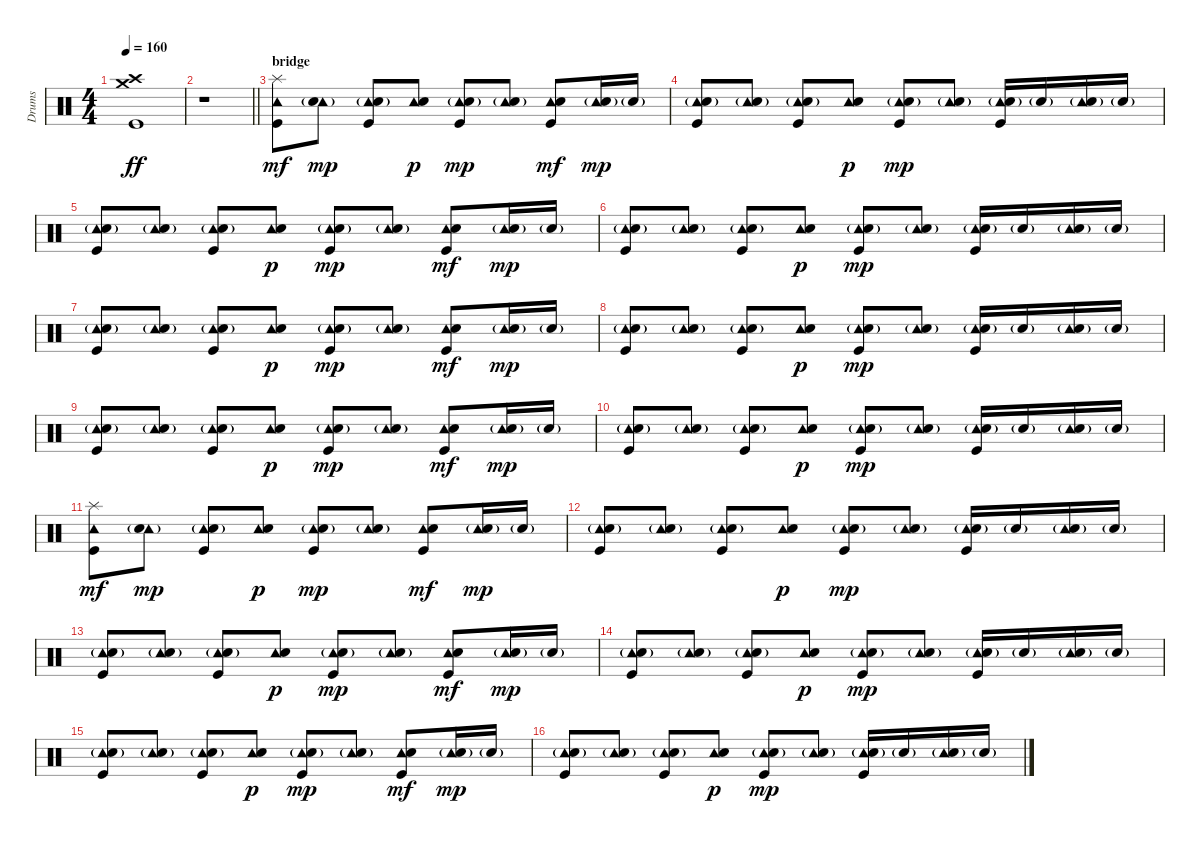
\track ("Drums" "Drums") {instrument percussion}
\staff {score}
\articulation defaults
\ts (4 4)
\tempo 160
\clef neutral
\ks c
("Crash medium (hit)" "Crash high (hit)" "Kick (hit)").1{dy ff} |
\barLineRight lightlight
r.1 |
\section ("" "bridge")
("Tambourine (hit)" "Splash (hit)" "Kick (hit)").8{dy mf} ("Tambourine (hit)" "Electric Snare (hit)"{g}).8{dy mp} ("Tambourine (hit)" "Electric Snare (hit)"{g} "Kick (hit)").8 ("Tambourine (hit)" "Electric Snare (hit)").8{dy p} ("Tambourine (hit)" "Electric Snare (hit)"{g} "Kick (hit)").8{dy mp} ("Tambourine (hit)" "Electric Snare (hit)"{g}).8 ("Tambourine (hit)" "Electric Snare (hit)" "Kick (hit)").8{dy mf} ("Tambourine (hit)" "Electric Snare (hit)"{g}).16{dy mp} "Electric Snare (hit)"{g}.16 |
("Tambourine (hit)" "Electric Snare (hit)"{g} "Kick (hit)").8 ("Tambourine (hit)" "Electric Snare (hit)"{g}).8 ("Tambourine (hit)" "Electric Snare (hit)"{g} "Kick (hit)").8 ("Tambourine (hit)" "Electric Snare (hit)").8{dy p} ("Tambourine (hit)" "Electric Snare (hit)"{g} "Kick (hit)").8{dy mp} ("Tambourine (hit)" "Electric Snare (hit)"{g}).8 ("Tambourine (hit)" "Electric Snare (hit)"{g} "Kick (hit)").16 "Electric Snare (hit)"{g}.16 ("Tambourine (hit)" "Electric Snare (hit)"{g}).16 "Electric Snare (hit)"{g}.16 |
("Tambourine (hit)" "Electric Snare (hit)"{g} "Kick (hit)").8 ("Tambourine (hit)" "Electric Snare (hit)"{g}).8 ("Tambourine (hit)" "Electric Snare (hit)"{g} "Kick (hit)").8 ("Tambourine (hit)" "Electric Snare (hit)").8{dy p} ("Tambourine (hit)" "Electric Snare (hit)"{g} "Kick (hit)").8{dy mp} ("Tambourine (hit)" "Electric Snare (hit)"{g}).8 ("Tambourine (hit)" "Electric Snare (hit)" "Kick (hit)").8{dy mf} ("Tambourine (hit)" "Electric Snare (hit)"{g}).16{dy mp} "Electric Snare (hit)"{g}.16 |
("Tambourine (hit)" "Electric Snare (hit)"{g} "Kick (hit)").8 ("Tambourine (hit)" "Electric Snare (hit)"{g}).8 ("Tambourine (hit)" "Electric Snare (hit)"{g} "Kick (hit)").8 ("Tambourine (hit)" "Electric Snare (hit)").8{dy p} ("Tambourine (hit)" "Electric Snare (hit)"{g} "Kick (hit)").8{dy mp} ("Tambourine (hit)" "Electric Snare (hit)"{g}).8 ("Tambourine (hit)" "Electric Snare (hit)"{g} "Kick (hit)").16 "Electric Snare (hit)"{g}.16 ("Tambourine (hit)" "Electric Snare (hit)"{g}).16 "Electric Snare (hit)"{g}.16 |
("Tambourine (hit)" "Electric Snare (hit)"{g} "Kick (hit)").8 ("Tambourine (hit)" "Electric Snare (hit)"{g}).8 ("Tambourine (hit)" "Electric Snare (hit)"{g} "Kick (hit)").8 ("Tambourine (hit)" "Electric Snare (hit)").8{dy p} ("Tambourine (hit)" "Electric Snare (hit)"{g} "Kick (hit)").8{dy mp} ("Tambourine (hit)" "Electric Snare (hit)"{g}).8 ("Tambourine (hit)" "Electric Snare (hit)" "Kick (hit)").8{dy mf} ("Tambourine (hit)" "Electric Snare (hit)"{g}).16{dy mp} "Electric Snare (hit)"{g}.16 |
("Tambourine (hit)" "Electric Snare (hit)"{g} "Kick (hit)").8 ("Tambourine (hit)" "Electric Snare (hit)"{g}).8 ("Tambourine (hit)" "Electric Snare (hit)"{g} "Kick (hit)").8 ("Tambourine (hit)" "Electric Snare (hit)").8{dy p} ("Tambourine (hit)" "Electric Snare (hit)"{g} "Kick (hit)").8{dy mp} ("Tambourine (hit)" "Electric Snare (hit)"{g}).8 ("Tambourine (hit)" "Electric Snare (hit)"{g} "Kick (hit)").16 "Electric Snare (hit)"{g}.16 ("Tambourine (hit)" "Electric Snare (hit)"{g}).16 "Electric Snare (hit)"{g}.16 |
("Tambourine (hit)" "Electric Snare (hit)"{g} "Kick (hit)").8 ("Tambourine (hit)" "Electric Snare (hit)"{g}).8 ("Tambourine (hit)" "Electric Snare (hit)"{g} "Kick (hit)").8 ("Tambourine (hit)" "Electric Snare (hit)").8{dy p} ("Tambourine (hit)" "Electric Snare (hit)"{g} "Kick (hit)").8{dy mp} ("Tambourine (hit)" "Electric Snare (hit)"{g}).8 ("Tambourine (hit)" "Electric Snare (hit)" "Kick (hit)").8{dy mf} ("Tambourine (hit)" "Electric Snare (hit)"{g}).16{dy mp} "Electric Snare (hit)"{g}.16 |
("Tambourine (hit)" "Electric Snare (hit)"{g} "Kick (hit)").8 ("Tambourine (hit)" "Electric Snare (hit)"{g}).8 ("Tambourine (hit)" "Electric Snare (hit)"{g} "Kick (hit)").8 ("Tambourine (hit)" "Electric Snare (hit)").8{dy p} ("Tambourine (hit)" "Electric Snare (hit)"{g} "Kick (hit)").8{dy mp} ("Tambourine (hit)" "Electric Snare (hit)"{g}).8 ("Tambourine (hit)" "Electric Snare (hit)"{g} "Kick (hit)").16 "Electric Snare (hit)"{g}.16 ("Tambourine (hit)" "Electric Snare (hit)"{g}).16 "Electric Snare (hit)"{g}.16 |
("Tambourine (hit)" "Splash (hit)" "Kick (hit)").8{dy mf} ("Tambourine (hit)" "Electric Snare (hit)"{g}).8{dy mp} ("Tambourine (hit)" "Electric Snare (hit)"{g} "Kick (hit)").8 ("Tambourine (hit)" "Electric Snare (hit)").8{dy p} ("Tambourine (hit)" "Electric Snare (hit)"{g} "Kick (hit)").8{dy mp} ("Tambourine (hit)" "Electric Snare (hit)"{g}).8 ("Tambourine (hit)" "Electric Snare (hit)" "Kick (hit)").8{dy mf} ("Tambourine (hit)" "Electric Snare (hit)"{g}).16{dy mp} "Electric Snare (hit)"{g}.16 |
("Tambourine (hit)" "Electric Snare (hit)"{g} "Kick (hit)").8 ("Tambourine (hit)" "Electric Snare (hit)"{g}).8 ("Tambourine (hit)" "Electric Snare (hit)"{g} "Kick (hit)").8 ("Tambourine (hit)" "Electric Snare (hit)").8{dy p} ("Tambourine (hit)" "Electric Snare (hit)"{g} "Kick (hit)").8{dy mp} ("Tambourine (hit)" "Electric Snare (hit)"{g}).8 ("Tambourine (hit)" "Electric Snare (hit)"{g} "Kick (hit)").16 "Electric Snare (hit)"{g}.16 ("Tambourine (hit)" "Electric Snare (hit)"{g}).16 "Electric Snare (hit)"{g}.16 |
("Tambourine (hit)" "Electric Snare (hit)"{g} "Kick (hit)").8 ("Tambourine (hit)" "Electric Snare (hit)"{g}).8 ("Tambourine (hit)" "Electric Snare (hit)"{g} "Kick (hit)").8 ("Tambourine (hit)" "Electric Snare (hit)").8{dy p} ("Tambourine (hit)" "Electric Snare (hit)"{g} "Kick (hit)").8{dy mp} ("Tambourine (hit)" "Electric Snare (hit)"{g}).8 ("Tambourine (hit)" "Electric Snare (hit)" "Kick (hit)").8{dy mf} ("Tambourine (hit)" "Electric Snare (hit)"{g}).16{dy mp} "Electric Snare (hit)"{g}.16 |
("Tambourine (hit)" "Electric Snare (hit)"{g} "Kick (hit)").8 ("Tambourine (hit)" "Electric Snare (hit)"{g}).8 ("Tambourine (hit)" "Electric Snare (hit)"{g} "Kick (hit)").8 ("Tambourine (hit)" "Electric Snare (hit)").8{dy p} ("Tambourine (hit)" "Electric Snare (hit)"{g} "Kick (hit)").8{dy mp} ("Tambourine (hit)" "Electric Snare (hit)"{g}).8 ("Tambourine (hit)" "Electric Snare (hit)"{g} "Kick (hit)").16 "Electric Snare (hit)"{g}.16 ("Tambourine (hit)" "Electric Snare (hit)"{g}).16 "Electric Snare (hit)"{g}.16 |
("Tambourine (hit)" "Electric Snare (hit)"{g} "Kick (hit)").8 ("Tambourine (hit)" "Electric Snare (hit)"{g}).8 ("Tambourine (hit)" "Electric Snare (hit)"{g} "Kick (hit)").8 ("Tambourine (hit)" "Electric Snare (hit)").8{dy p} ("Tambourine (hit)" "Electric Snare (hit)"{g} "Kick (hit)").8{dy mp} ("Tambourine (hit)" "Electric Snare (hit)"{g}).8 ("Tambourine (hit)" "Electric Snare (hit)" "Kick (hit)").8{dy mf} ("Tambourine (hit)" "Electric Snare (hit)"{g}).16{dy mp} "Electric Snare (hit)"{g}.16 |
("Tambourine (hit)" "Electric Snare (hit)"{g} "Kick (hit)").8 ("Tambourine (hit)" "Electric Snare (hit)"{g}).8 ("Tambourine (hit)" "Electric Snare (hit)"{g} "Kick (hit)").8 ("Tambourine (hit)" "Electric Snare (hit)").8{dy p} ("Tambourine (hit)" "Electric Snare (hit)"{g} "Kick (hit)").8{dy mp} ("Tambourine (hit)" "Electric Snare (hit)"{g}).8 ("Tambourine (hit)" "Electric Snare (hit)"{g} "Kick (hit)").16 "Electric Snare (hit)"{g}.16 ("Tambourine (hit)" "Electric Snare (hit)"{g}).16 "Electric Snare (hit)"{g}.16
